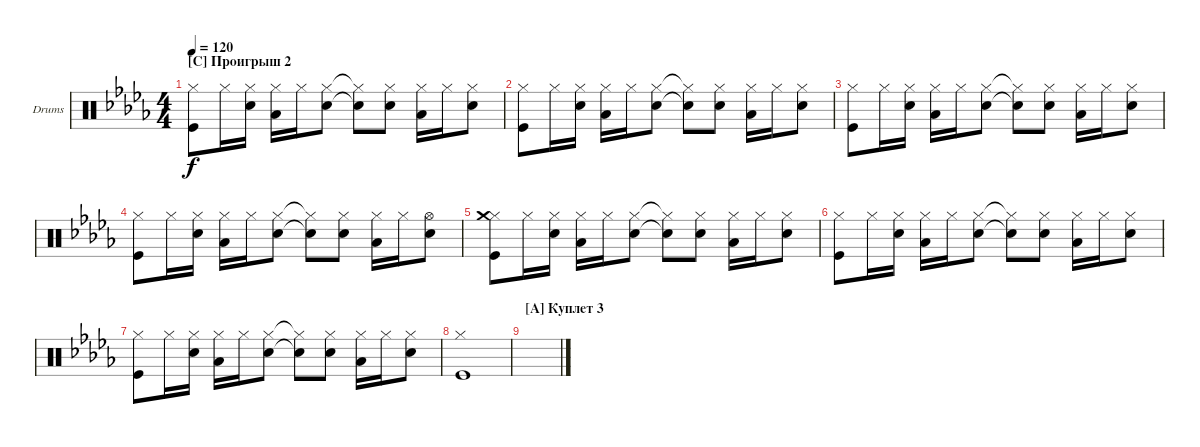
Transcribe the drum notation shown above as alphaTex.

\defaultSystemsLayout 4
\bracketExtendMode groupsimilarinstruments
\firstSystemTrackNameOrientation horizontal
\otherSystemsTrackNameOrientation horizontal
\track ("Ударные" "Drums") {instrument percussion}
\staff {score}
\articulation defaults
\ts (4 4)
\section ("C" "Проигрыш 2")
\tempo 120
\clef neutral
\ks db
("Kick (hit)" "Hi-Hat (closed)").8{dy f} "Hi-Hat (closed)".16 ("Hi-Hat (closed)" "Snare (hit) 2").16 ("Hi-Hat (closed)" "Low Tom (hit)").16 "Hi-Hat (closed)".16 ("Hi-Hat (closed)" "Snare (hit) 2").8 ("Hi-Hat (closed)"{t} "Snare (hit) 2"{t}).8 ("Hi-Hat (closed)" "Snare (hit) 2").8 ("Hi-Hat (closed)" "Low Tom (hit)").16 "Hi-Hat (closed)".16 ("Hi-Hat (closed)" "Snare (hit) 2").8 |
("Kick (hit)" "Hi-Hat (closed)").8 "Hi-Hat (closed)".16 ("Hi-Hat (closed)" "Snare (hit) 2").16 ("Hi-Hat (closed)" "Low Tom (hit)").16 "Hi-Hat (closed)".16 ("Hi-Hat (closed)" "Snare (hit) 2").8 ("Hi-Hat (closed)"{t} "Snare (hit) 2"{t}).8 ("Hi-Hat (closed)" "Snare (hit) 2").8 ("Hi-Hat (closed)" "Low Tom (hit)").16 "Hi-Hat (closed)".16 ("Hi-Hat (closed)" "Snare (hit) 2").8 |
("Kick (hit)" "Hi-Hat (closed)").8 "Hi-Hat (closed)".16 ("Hi-Hat (closed)" "Snare (hit) 2").16 ("Hi-Hat (closed)" "Low Tom (hit)").16 "Hi-Hat (closed)".16 ("Hi-Hat (closed)" "Snare (hit) 2").8 ("Hi-Hat (closed)"{t} "Snare (hit) 2"{t}).8 ("Hi-Hat (closed)" "Snare (hit) 2").8 ("Hi-Hat (closed)" "Low Tom (hit)").16 "Hi-Hat (closed)".16 ("Hi-Hat (closed)" "Snare (hit) 2").8 |
("Kick (hit)" "Hi-Hat (closed)").8 "Hi-Hat (closed)".16 ("Hi-Hat (closed)" "Snare (hit) 2").16 ("Hi-Hat (closed)" "Low Tom (hit)").16 "Hi-Hat (closed)".16 ("Hi-Hat (closed)" "Snare (hit) 2").8 ("Hi-Hat (closed)"{t} "Snare (hit) 2"{t}).8 ("Hi-Hat (closed)" "Snare (hit) 2").8 ("Hi-Hat (closed)" "Low Tom (hit)").16 "Hi-Hat (closed)".16 ("Hi-Hat (open)" "Snare (hit) 2").8 |
("Kick (hit)" "Hi-Hat (closed)" "Crash medium (hit)").8 "Hi-Hat (closed)".16 ("Hi-Hat (closed)" "Snare (hit) 2").16 ("Hi-Hat (closed)" "Low Tom (hit)").16 "Hi-Hat (closed)".16 ("Hi-Hat (closed)" "Snare (hit) 2").8 ("Hi-Hat (closed)"{t} "Snare (hit) 2"{t}).8 ("Hi-Hat (closed)" "Snare (hit) 2").8 ("Hi-Hat (closed)" "Low Tom (hit)").16 "Hi-Hat (closed)".16 ("Hi-Hat (closed)" "Snare (hit) 2").8 |
("Kick (hit)" "Hi-Hat (closed)").8 "Hi-Hat (closed)".16 ("Hi-Hat (closed)" "Snare (hit) 2").16 ("Hi-Hat (closed)" "Low Tom (hit)").16 "Hi-Hat (closed)".16 ("Hi-Hat (closed)" "Snare (hit) 2").8 ("Hi-Hat (closed)"{t} "Snare (hit) 2"{t}).8 ("Hi-Hat (closed)" "Snare (hit) 2").8 ("Hi-Hat (closed)" "Low Tom (hit)").16 "Hi-Hat (closed)".16 ("Hi-Hat (closed)" "Snare (hit) 2").8 |
("Kick (hit)" "Hi-Hat (closed)").8 "Hi-Hat (closed)".16 ("Hi-Hat (closed)" "Snare (hit) 2").16 ("Hi-Hat (closed)" "Low Tom (hit)").16 "Hi-Hat (closed)".16 ("Hi-Hat (closed)" "Snare (hit) 2").8 ("Hi-Hat (closed)"{t} "Snare (hit) 2"{t}).8 ("Hi-Hat (closed)" "Snare (hit) 2").8 ("Hi-Hat (closed)" "Low Tom (hit)").16 "Hi-Hat (closed)".16 ("Hi-Hat (closed)" "Snare (hit) 2").8 |
("Kick (hit)" "Hi-Hat (closed)").1 |
\section ("A" "Куплет 3")
